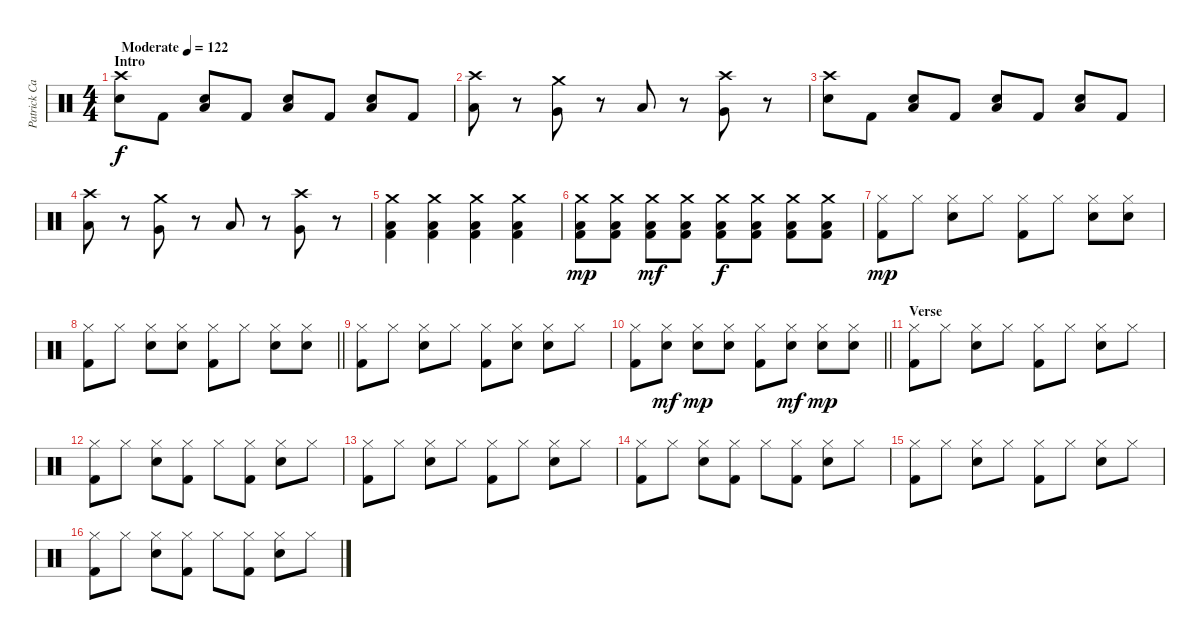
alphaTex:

\track ("Patrick Carney" "Patrick Ca") {instrument percussion}
\staff {score}
\articulation defaults
\ts (4 4)
\section ("" "Intro")
\tempo (122 "Moderate")
\clef neutral
\ks c
("Crash high (hit)" "Electric Snare (hit)").8{dy f} "Kick (hit) 2".8 ("Electric Snare (hit)" "Low Floor Tom (hit)").8 "Kick (hit) 2".8 ("Electric Snare (hit)" "Low Floor Tom (hit)").8 "Kick (hit) 2".8 ("Electric Snare (hit)" "Low Floor Tom (hit)").8 "Kick (hit) 2".8 |
("Crash high (hit)" "Low Floor Tom (hit)").8 r.8 ("Crash medium (hit)" "Very Low Tom (hit)").8 r.8 "Low Floor Tom (hit)".8 r.8 ("Crash high (hit)" "Very Low Tom (hit)").8 r.8 |
("Crash high (hit)" "Electric Snare (hit)").8 "Kick (hit) 2".8 ("Electric Snare (hit)" "Low Floor Tom (hit)").8 "Kick (hit) 2".8 ("Electric Snare (hit)" "Low Floor Tom (hit)").8 "Kick (hit) 2".8 ("Electric Snare (hit)" "Low Floor Tom (hit)").8 "Kick (hit) 2".8 |
("Crash high (hit)" "Low Floor Tom (hit)").8 r.8 ("Crash medium (hit)" "Very Low Tom (hit)").8 r.8 "Low Floor Tom (hit)".8 r.8 ("Crash high (hit)" "Very Low Tom (hit)").8 r.8 |
("Crash medium (hit)" "Low Floor Tom (hit)" "Kick (hit) 2").4 ("Crash medium (hit)" "Low Floor Tom (hit)" "Kick (hit) 2").4 ("Crash medium (hit)" "Low Floor Tom (hit)" "Kick (hit) 2").4 ("Crash medium (hit)" "Low Floor Tom (hit)" "Kick (hit) 2").4 |
("Crash medium (hit)" "Low Floor Tom (hit)" "Kick (hit) 2").8{dy mp} ("Crash medium (hit)" "Low Floor Tom (hit)" "Kick (hit) 2").8 ("Crash medium (hit)" "Low Floor Tom (hit)" "Kick (hit) 2").8{dy mf} ("Crash medium (hit)" "Low Floor Tom (hit)" "Kick (hit) 2").8 ("Crash medium (hit)" "Low Floor Tom (hit)" "Kick (hit) 2").8{dy f} ("Crash medium (hit)" "Low Floor Tom (hit)" "Kick (hit) 2").8 ("Crash medium (hit)" "Low Floor Tom (hit)" "Kick (hit) 2").8 ("Crash medium (hit)" "Low Floor Tom (hit)" "Kick (hit) 2").8 |
("Hi-Hat (closed)" "Kick (hit) 2").8{dy mp} "Hi-Hat (closed)".8 ("Hi-Hat (closed)" "Electric Snare (hit)").8 "Hi-Hat (closed)".8 ("Hi-Hat (closed)" "Kick (hit) 2").8 "Hi-Hat (closed)".8 ("Hi-Hat (closed)" "Electric Snare (hit)").8 ("Hi-Hat (closed)" "Electric Snare (hit)").8 |
\barLineRight lightlight
("Hi-Hat (closed)" "Kick (hit) 2").8 "Hi-Hat (closed)".8 ("Hi-Hat (closed)" "Electric Snare (hit)").8 ("Hi-Hat (closed)" "Electric Snare (hit)").8 ("Hi-Hat (closed)" "Kick (hit) 2").8 "Hi-Hat (closed)".8 ("Hi-Hat (closed)" "Electric Snare (hit)").8 ("Hi-Hat (closed)" "Electric Snare (hit)").8 |
("Hi-Hat (closed)" "Kick (hit) 2").8 "Hi-Hat (closed)".8 ("Hi-Hat (closed)" "Electric Snare (hit)").8 "Hi-Hat (closed)".8 ("Hi-Hat (closed)" "Kick (hit) 2").8 ("Hi-Hat (closed)" "Electric Snare (hit)").8 ("Hi-Hat (closed)" "Electric Snare (hit)").8 "Hi-Hat (closed)".8 |
\barLineRight lightlight
("Hi-Hat (closed)" "Kick (hit) 2").8 ("Hi-Hat (closed)" "Electric Snare (hit)").8{dy mf} ("Hi-Hat (closed)" "Electric Snare (hit)").8{dy mp} ("Hi-Hat (closed)" "Electric Snare (hit)").8 ("Hi-Hat (closed)" "Kick (hit) 2").8 ("Hi-Hat (closed)" "Electric Snare (hit)").8{dy mf} ("Hi-Hat (closed)" "Electric Snare (hit)").8{dy mp} ("Hi-Hat (closed)" "Electric Snare (hit)").8 |
\section ("" "Verse")
("Hi-Hat (closed)" "Kick (hit) 2").8 "Hi-Hat (closed)".8 ("Hi-Hat (closed)" "Electric Snare (hit)").8 "Hi-Hat (closed)".8 ("Hi-Hat (closed)" "Kick (hit) 2").8 "Hi-Hat (closed)".8 ("Hi-Hat (closed)" "Electric Snare (hit)").8 "Hi-Hat (closed)".8 |
("Hi-Hat (closed)" "Kick (hit) 2").8 "Hi-Hat (closed)".8 ("Hi-Hat (closed)" "Electric Snare (hit)").8 ("Hi-Hat (closed)" "Kick (hit) 2").8 "Hi-Hat (closed)".8 ("Hi-Hat (closed)" "Kick (hit) 2").8 ("Hi-Hat (closed)" "Electric Snare (hit)").8 "Hi-Hat (closed)".8 |
("Hi-Hat (closed)" "Kick (hit) 2").8 "Hi-Hat (closed)".8 ("Hi-Hat (closed)" "Electric Snare (hit)").8 "Hi-Hat (closed)".8 ("Hi-Hat (closed)" "Kick (hit) 2").8 "Hi-Hat (closed)".8 ("Hi-Hat (closed)" "Electric Snare (hit)").8 "Hi-Hat (closed)".8 |
("Hi-Hat (closed)" "Kick (hit) 2").8 "Hi-Hat (closed)".8 ("Hi-Hat (closed)" "Electric Snare (hit)").8 ("Hi-Hat (closed)" "Kick (hit) 2").8 "Hi-Hat (closed)".8 ("Hi-Hat (closed)" "Kick (hit) 2").8 ("Hi-Hat (closed)" "Electric Snare (hit)").8 "Hi-Hat (closed)".8 |
("Hi-Hat (closed)" "Kick (hit) 2").8 "Hi-Hat (closed)".8 ("Hi-Hat (closed)" "Electric Snare (hit)").8 "Hi-Hat (closed)".8 ("Hi-Hat (closed)" "Kick (hit) 2").8 "Hi-Hat (closed)".8 ("Hi-Hat (closed)" "Electric Snare (hit)").8 "Hi-Hat (closed)".8 |
("Hi-Hat (closed)" "Kick (hit) 2").8 "Hi-Hat (closed)".8 ("Hi-Hat (closed)" "Electric Snare (hit)").8 ("Hi-Hat (closed)" "Kick (hit) 2").8 "Hi-Hat (closed)".8 ("Hi-Hat (closed)" "Kick (hit) 2").8 ("Hi-Hat (closed)" "Electric Snare (hit)").8 "Hi-Hat (closed)".8
